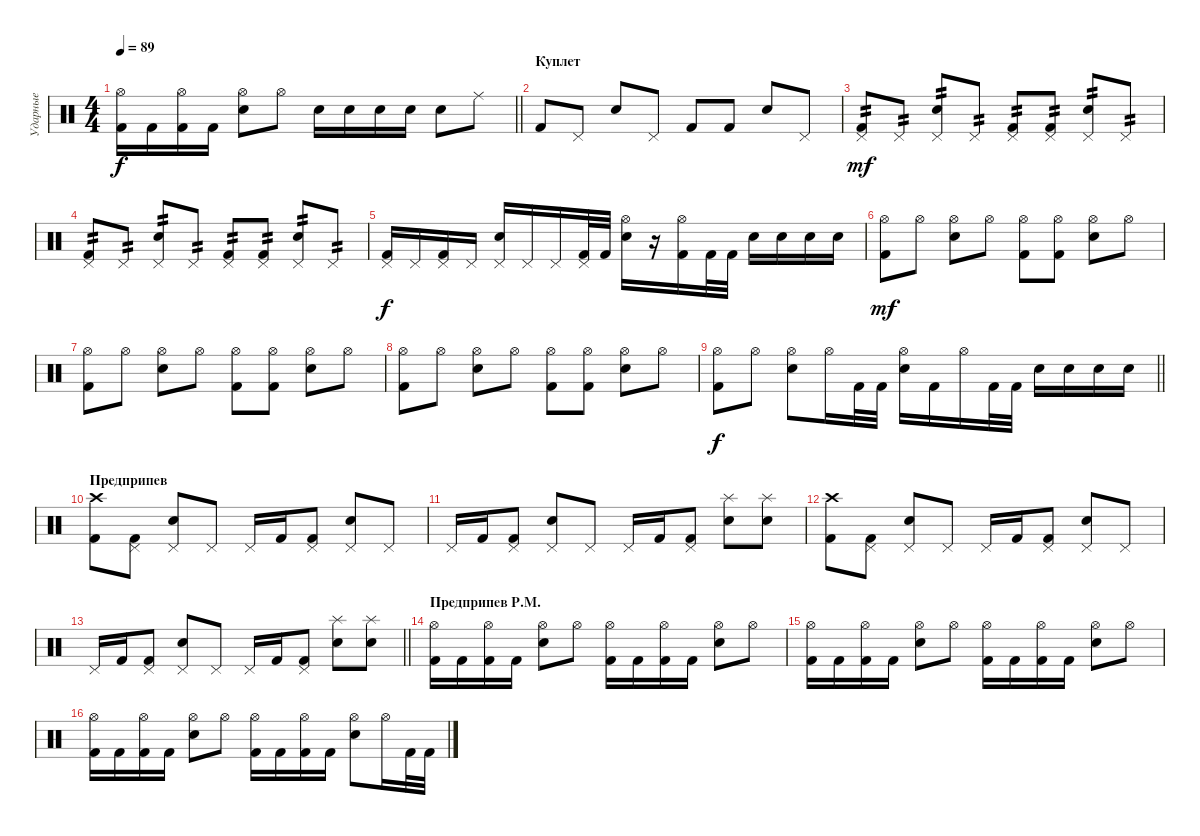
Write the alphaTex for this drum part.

\track ("Ударные" "Ударные") {instrument percussion}
\staff {score}
\articulation defaults
\ts (4 4)
\tempo 89
\clef neutral
\barLineRight lightlight
\ks c
("Kick (hit) 2" "Hi-Hat (open)").16{dy f} "Kick (hit) 2".16 ("Kick (hit) 2" "Hi-Hat (open)").16 "Kick (hit) 2".16 ("Electric Snare (hit)" "Hi-Hat (open)").8 "Hi-Hat (open)".8 "Electric Snare (hit)".16 "Electric Snare (hit)".16 "Electric Snare (hit)".16 "Electric Snare (hit)".16 "Electric Snare (hit)".8 "Ride (middle)".8 |
\section ("" "Куплет")
"Kick (hit) 2".8 "Pedal Hi-Hat (hit)".8 "Electric Snare (hit)".8 "Pedal Hi-Hat (hit)".8 "Kick (hit) 2".8 "Kick (hit) 2".8 "Electric Snare (hit)".8 "Pedal Hi-Hat (hit)".8 |
("Kick (hit) 2" "Pedal Hi-Hat (hit)").8{tp 2 dy mf} "Pedal Hi-Hat (hit)".8{tp 2} ("Electric Snare (hit)" "Pedal Hi-Hat (hit)").8{tp 2} "Pedal Hi-Hat (hit)".8{tp 2} ("Kick (hit) 2" "Pedal Hi-Hat (hit)").8{tp 2} ("Kick (hit) 2" "Pedal Hi-Hat (hit)").8{tp 2} ("Electric Snare (hit)" "Pedal Hi-Hat (hit)").8{tp 2} "Pedal Hi-Hat (hit)".8{tp 2} |
("Kick (hit) 2" "Pedal Hi-Hat (hit)").8{tp 2} "Pedal Hi-Hat (hit)".8{tp 2} ("Electric Snare (hit)" "Pedal Hi-Hat (hit)").8{tp 2} "Pedal Hi-Hat (hit)".8{tp 2} ("Kick (hit) 2" "Pedal Hi-Hat (hit)").8{tp 2} ("Kick (hit) 2" "Pedal Hi-Hat (hit)").8{tp 2} ("Electric Snare (hit)" "Pedal Hi-Hat (hit)").8{tp 2} "Pedal Hi-Hat (hit)".8{tp 2} |
("Kick (hit) 2" "Pedal Hi-Hat (hit)").16{dy f} "Pedal Hi-Hat (hit)".16 ("Kick (hit) 2" "Pedal Hi-Hat (hit)").16 "Pedal Hi-Hat (hit)".16 ("Electric Snare (hit)" "Pedal Hi-Hat (hit)").16 "Pedal Hi-Hat (hit)".16 "Pedal Hi-Hat (hit)".16 ("Kick (hit) 2" "Pedal Hi-Hat (hit)").32 "Kick (hit) 2".32 ("Electric Snare (hit)" "Hi-Hat (open)").16 r.16 ("Kick (hit) 2" "Hi-Hat (open)").16 "Kick (hit) 2".32 "Kick (hit) 2".32 "Electric Snare (hit)".16 "Electric Snare (hit)".16 "Electric Snare (hit)".16 "Electric Snare (hit)".16 |
("Kick (hit) 2" "Hi-Hat (open)").8{dy mf} "Hi-Hat (open)".8 ("Electric Snare (hit)" "Hi-Hat (open)").8 "Hi-Hat (open)".8 ("Kick (hit) 2" "Hi-Hat (open)").8 ("Kick (hit) 2" "Hi-Hat (open)").8 ("Electric Snare (hit)" "Hi-Hat (open)").8 "Hi-Hat (open)".8 |
("Kick (hit) 2" "Hi-Hat (open)").8 "Hi-Hat (open)".8 ("Electric Snare (hit)" "Hi-Hat (open)").8 "Hi-Hat (open)".8 ("Kick (hit) 2" "Hi-Hat (open)").8 ("Kick (hit) 2" "Hi-Hat (open)").8 ("Electric Snare (hit)" "Hi-Hat (open)").8 "Hi-Hat (open)".8 |
("Kick (hit) 2" "Hi-Hat (open)").8 "Hi-Hat (open)".8 ("Electric Snare (hit)" "Hi-Hat (open)").8 "Hi-Hat (open)".8 ("Kick (hit) 2" "Hi-Hat (open)").8 ("Kick (hit) 2" "Hi-Hat (open)").8 ("Electric Snare (hit)" "Hi-Hat (open)").8 "Hi-Hat (open)".8 |
\barLineRight lightlight
("Kick (hit) 2" "Hi-Hat (open)").8{dy f} "Hi-Hat (open)".8 ("Electric Snare (hit)" "Hi-Hat (open)").8 "Hi-Hat (open)".16 "Kick (hit) 2".32 "Kick (hit) 2".32 ("Electric Snare (hit)" "Hi-Hat (open)").16 "Kick (hit) 2".16 "Hi-Hat (open)".16 "Kick (hit) 2".32 "Kick (hit) 2".32 "Electric Snare (hit)".16 "Electric Snare (hit)".16 "Electric Snare (hit)".16 "Electric Snare (hit)".16 |
\section ("" "Предприпев")
("Kick (hit) 2" "Crash high (hit)").8 ("Kick (hit) 2" "Pedal Hi-Hat (hit)").8 ("Electric Snare (hit)" "Pedal Hi-Hat (hit)").8 "Pedal Hi-Hat (hit)".8 "Pedal Hi-Hat (hit)".16 "Kick (hit) 2".16 ("Kick (hit) 2" "Pedal Hi-Hat (hit)").8 ("Electric Snare (hit)" "Pedal Hi-Hat (hit)").8 "Pedal Hi-Hat (hit)".8 |
"Pedal Hi-Hat (hit)".16 "Kick (hit) 2".16 ("Kick (hit) 2" "Pedal Hi-Hat (hit)").8 ("Electric Snare (hit)" "Pedal Hi-Hat (hit)").8 "Pedal Hi-Hat (hit)".8 "Pedal Hi-Hat (hit)".16 "Kick (hit) 2".16 ("Kick (hit) 2" "Pedal Hi-Hat (hit)").8 ("Electric Snare (hit)" "Splash (hit)").8 ("Electric Snare (hit)" "Splash (hit)").8 |
("Kick (hit) 2" "Crash high (hit)").8 ("Kick (hit) 2" "Pedal Hi-Hat (hit)").8 ("Electric Snare (hit)" "Pedal Hi-Hat (hit)").8 "Pedal Hi-Hat (hit)".8 "Pedal Hi-Hat (hit)".16 "Kick (hit) 2".16 ("Kick (hit) 2" "Pedal Hi-Hat (hit)").8 ("Electric Snare (hit)" "Pedal Hi-Hat (hit)").8 "Pedal Hi-Hat (hit)".8 |
\barLineRight lightlight "Pedal Hi-Hat (hit)".16 "Kick (hit) 2".16
("Kick (hit) 2" "Pedal Hi-Hat (hit)").8 ("Electric Snare (hit)" "Pedal Hi-Hat (hit)").8 "Pedal Hi-Hat (hit)".8 "Pedal Hi-Hat (hit)".16 "Kick (hit) 2".16 ("Kick (hit) 2" "Pedal Hi-Hat (hit)").8 ("Electric Snare (hit)" "Splash (hit)").8 ("Electric Snare (hit)" "Splash (hit)").8 |
\section ("" "Предприпев Р.М.")
("Kick (hit) 2" "Hi-Hat (open)").16 "Kick (hit) 2".16 ("Kick (hit) 2" "Hi-Hat (open)").16 "Kick (hit) 2".16 ("Electric Snare (hit)" "Hi-Hat (open)").8 "Hi-Hat (open)".8 ("Kick (hit) 2" "Hi-Hat (open)").16 "Kick (hit) 2".16 ("Kick (hit) 2" "Hi-Hat (open)").16 "Kick (hit) 2".16 ("Electric Snare (hit)" "Hi-Hat (open)").8 "Hi-Hat (open)".8 |
("Kick (hit) 2" "Hi-Hat (open)").16 "Kick (hit) 2".16 ("Kick (hit) 2" "Hi-Hat (open)").16 "Kick (hit) 2".16 ("Electric Snare (hit)" "Hi-Hat (open)").8 "Hi-Hat (open)".8 ("Kick (hit) 2" "Hi-Hat (open)").16 "Kick (hit) 2".16 ("Kick (hit) 2" "Hi-Hat (open)").16 "Kick (hit) 2".16 ("Electric Snare (hit)" "Hi-Hat (open)").8 "Hi-Hat (open)".8 |
("Kick (hit) 2" "Hi-Hat (open)").16 "Kick (hit) 2".16 ("Kick (hit) 2" "Hi-Hat (open)").16 "Kick (hit) 2".16 ("Electric Snare (hit)" "Hi-Hat (open)").8 "Hi-Hat (open)".8 ("Kick (hit) 2" "Hi-Hat (open)").16 "Kick (hit) 2".16 ("Kick (hit) 2" "Hi-Hat (open)").16 "Kick (hit) 2".16 ("Electric Snare (hit)" "Hi-Hat (open)").8 "Hi-Hat (open)".16 "Kick (hit) 2".32 "Kick (hit) 2".32
